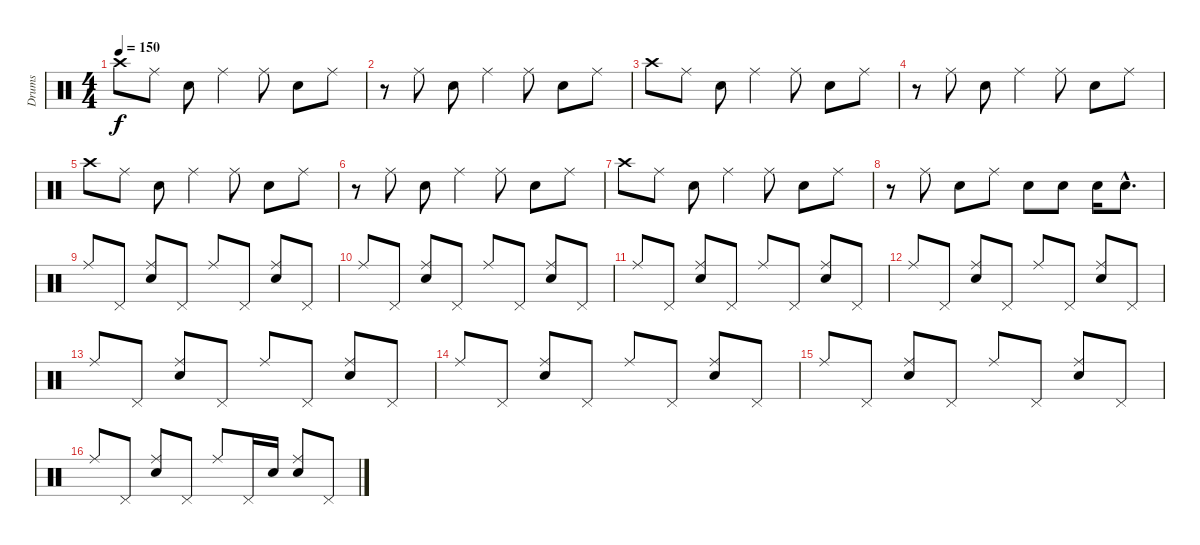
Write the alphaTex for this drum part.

\track ("Drums" "Drums") {instrument percussion}
\staff {score}
\articulation defaults
\ts (4 4)
\tempo 150
\clef neutral
\ks c "Crash high (hit)".8{dy f} "Ride (middle)".8 "Electric Snare (hit)".8 "Ride (middle)".4 "Ride (middle)".8 "Electric Snare (hit)".8 "Ride (middle)".8
|
r.8 "Ride (middle)".8 "Electric Snare (hit)".8 "Ride (middle)".4 "Ride (middle)".8 "Electric Snare (hit)".8 "Ride (middle)".8 |
"Crash high (hit)".8 "Ride (middle)".8 "Electric Snare (hit)".8 "Ride (middle)".4 "Ride (middle)".8 "Electric Snare (hit)".8 "Ride (middle)".8 |
r.8 "Ride (middle)".8 "Electric Snare (hit)".8 "Ride (middle)".4 "Ride (middle)".8 "Electric Snare (hit)".8 "Ride (middle)".8 |
"Crash high (hit)".8 "Ride (middle)".8 "Electric Snare (hit)".8 "Ride (middle)".4 "Ride (middle)".8 "Electric Snare (hit)".8 "Ride (middle)".8 |
r.8 "Ride (middle)".8 "Electric Snare (hit)".8 "Ride (middle)".4 "Ride (middle)".8 "Electric Snare (hit)".8 "Ride (middle)".8 |
"Crash high (hit)".8 "Ride (middle)".8 "Electric Snare (hit)".8 "Ride (middle)".4 "Ride (middle)".8 "Electric Snare (hit)".8 "Ride (middle)".8 |
r.8 "Ride (middle)".8 "Electric Snare (hit)".8 "Ride (middle)".8 "Electric Snare (hit)".8 "Electric Snare (hit)".8 "Electric Snare (hit)".16 "Electric Snare (hit)"{hac}.8{d} |
"Ride (middle)".8 "Pedal Hi-Hat (hit)".8 ("Ride (middle)" "Electric Snare (hit)").8 "Pedal Hi-Hat (hit)".8 "Ride (middle)".8 "Pedal Hi-Hat (hit)".8 ("Ride (middle)" "Electric Snare (hit)").8 "Pedal Hi-Hat (hit)".8 |
"Ride (middle)".8 "Pedal Hi-Hat (hit)".8 ("Ride (middle)" "Electric Snare (hit)").8 "Pedal Hi-Hat (hit)".8 "Ride (middle)".8 "Pedal Hi-Hat (hit)".8 ("Ride (middle)" "Electric Snare (hit)").8 "Pedal Hi-Hat (hit)".8 |
"Ride (middle)".8 "Pedal Hi-Hat (hit)".8 ("Ride (middle)" "Electric Snare (hit)").8 "Pedal Hi-Hat (hit)".8 "Ride (middle)".8 "Pedal Hi-Hat (hit)".8 ("Ride (middle)" "Electric Snare (hit)").8 "Pedal Hi-Hat (hit)".8 |
"Ride (middle)".8 "Pedal Hi-Hat (hit)".8 ("Ride (middle)" "Electric Snare (hit)").8 "Pedal Hi-Hat (hit)".8 "Ride (middle)".8 "Pedal Hi-Hat (hit)".8 ("Ride (middle)" "Electric Snare (hit)").8 "Pedal Hi-Hat (hit)".8 |
"Ride (middle)".8 "Pedal Hi-Hat (hit)".8 ("Ride (middle)" "Electric Snare (hit)").8 "Pedal Hi-Hat (hit)".8 "Ride (middle)".8 "Pedal Hi-Hat (hit)".8 ("Ride (middle)" "Electric Snare (hit)").8 "Pedal Hi-Hat (hit)".8 |
"Ride (middle)".8 "Pedal Hi-Hat (hit)".8 ("Ride (middle)" "Electric Snare (hit)").8 "Pedal Hi-Hat (hit)".8 "Ride (middle)".8 "Pedal Hi-Hat (hit)".8 ("Ride (middle)" "Electric Snare (hit)").8 "Pedal Hi-Hat (hit)".8 |
"Ride (middle)".8 "Pedal Hi-Hat (hit)".8 ("Ride (middle)" "Electric Snare (hit)").8 "Pedal Hi-Hat (hit)".8 "Ride (middle)".8 "Pedal Hi-Hat (hit)".8 ("Ride (middle)" "Electric Snare (hit)").8 "Pedal Hi-Hat (hit)".8 |
"Ride (middle)".8 "Pedal Hi-Hat (hit)".8 ("Ride (middle)" "Electric Snare (hit)").8 "Pedal Hi-Hat (hit)".8 "Ride (middle)".8 "Pedal Hi-Hat (hit)".16 "Electric Snare (hit)".16 ("Ride (middle)" "Electric Snare (hit)").8 "Pedal Hi-Hat (hit)".8
